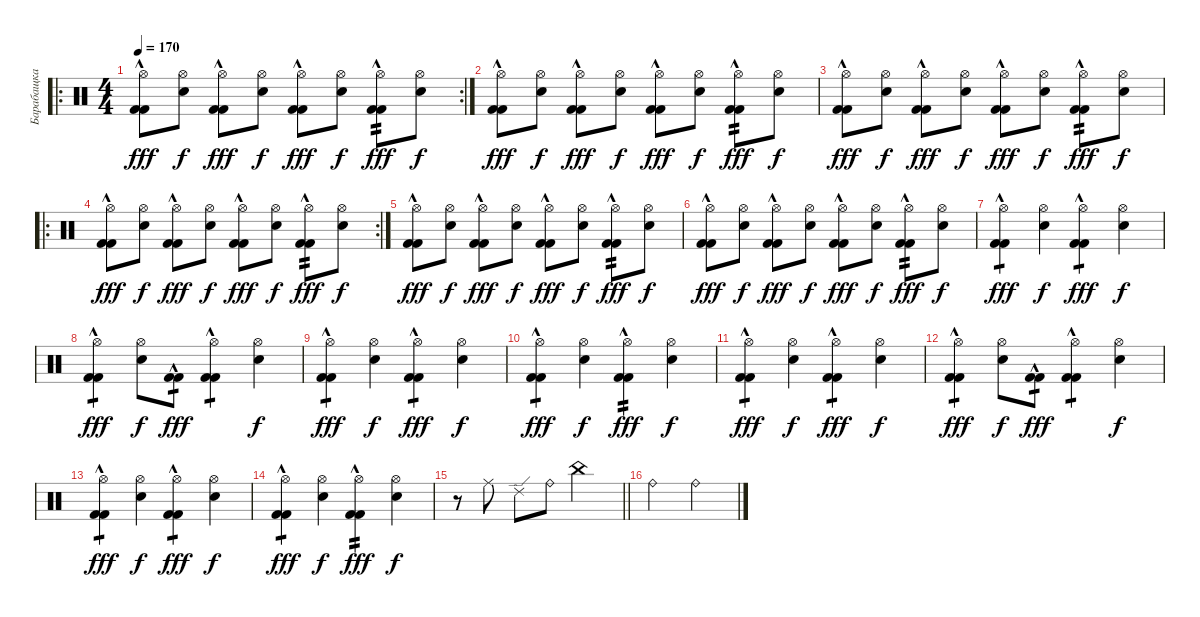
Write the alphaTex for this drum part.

\track ("Барабащка" "Барабащка") {instrument percussion}
\staff {score}
\articulation defaults
\ro
\rc 2
\ts (4 4)
\tempo 170
\clef neutral
\ks c
("Hi-Hat (open)" "Kick (hit) 2"{hac} "Kick (hit) 2").8{dy fff} ("Hi-Hat (open)" "Snare (hit) 2").8{dy f} ("Hi-Hat (open)" "Kick (hit) 2"{hac} "Kick (hit) 2").8{dy fff} ("Hi-Hat (open)" "Snare (hit) 2").8{dy f} ("Hi-Hat (open)" "Kick (hit) 2"{hac} "Kick (hit) 2").8{dy fff} ("Hi-Hat (open)" "Snare (hit) 2").8{dy f} ("Hi-Hat (open)" "Kick (hit) 2"{hac} "Kick (hit) 2").8{tp 2 dy fff} ("Hi-Hat (open)" "Snare (hit) 2").8{dy f} |
("Hi-Hat (open)" "Kick (hit) 2"{hac} "Kick (hit) 2").8{dy fff} ("Hi-Hat (open)" "Snare (hit) 2").8{dy f} ("Hi-Hat (open)" "Kick (hit) 2"{hac} "Kick (hit) 2").8{dy fff} ("Hi-Hat (open)" "Snare (hit) 2").8{dy f} ("Hi-Hat (open)" "Kick (hit) 2"{hac} "Kick (hit) 2").8{dy fff} ("Hi-Hat (open)" "Snare (hit) 2").8{dy f} ("Hi-Hat (open)" "Kick (hit) 2"{hac} "Kick (hit) 2").8{tp 2 dy fff} ("Hi-Hat (open)" "Snare (hit) 2").8{dy f} |
("Hi-Hat (open)" "Kick (hit) 2"{hac} "Kick (hit) 2").8{dy fff} ("Hi-Hat (open)" "Snare (hit) 2").8{dy f} ("Hi-Hat (open)" "Kick (hit) 2"{hac} "Kick (hit) 2").8{dy fff} ("Hi-Hat (open)" "Snare (hit) 2").8{dy f} ("Hi-Hat (open)" "Kick (hit) 2"{hac} "Kick (hit) 2").8{dy fff} ("Hi-Hat (open)" "Snare (hit) 2").8{dy f} ("Hi-Hat (open)" "Kick (hit) 2"{hac} "Kick (hit) 2").8{tp 2 dy fff} ("Hi-Hat (open)" "Snare (hit) 2").8{dy f} |
\ro
\rc 2
("Hi-Hat (open)" "Kick (hit) 2"{hac} "Kick (hit) 2").8{dy fff} ("Hi-Hat (open)" "Snare (hit) 2").8{dy f} ("Hi-Hat (open)" "Kick (hit) 2"{hac} "Kick (hit) 2").8{dy fff} ("Hi-Hat (open)" "Snare (hit) 2").8{dy f} ("Hi-Hat (open)" "Kick (hit) 2"{hac} "Kick (hit) 2").8{dy fff} ("Hi-Hat (open)" "Snare (hit) 2").8{dy f} ("Hi-Hat (open)" "Kick (hit) 2"{hac} "Kick (hit) 2").8{tp 2 dy fff} ("Hi-Hat (open)" "Snare (hit) 2").8{dy f} |
("Hi-Hat (open)" "Kick (hit) 2"{hac} "Kick (hit) 2").8{dy fff} ("Hi-Hat (open)" "Snare (hit) 2").8{dy f} ("Hi-Hat (open)" "Kick (hit) 2"{hac} "Kick (hit) 2").8{dy fff} ("Hi-Hat (open)" "Snare (hit) 2").8{dy f} ("Hi-Hat (open)" "Kick (hit) 2"{hac} "Kick (hit) 2").8{dy fff} ("Hi-Hat (open)" "Snare (hit) 2").8{dy f} ("Hi-Hat (open)" "Kick (hit) 2"{hac} "Kick (hit) 2").8{tp 2 dy fff} ("Hi-Hat (open)" "Snare (hit) 2").8{dy f} |
("Hi-Hat (open)" "Kick (hit) 2"{hac} "Kick (hit) 2").8{dy fff} ("Hi-Hat (open)" "Snare (hit) 2").8{dy f} ("Hi-Hat (open)" "Kick (hit) 2"{hac} "Kick (hit) 2").8{dy fff} ("Hi-Hat (open)" "Snare (hit) 2").8{dy f} ("Hi-Hat (open)" "Kick (hit) 2"{hac} "Kick (hit) 2").8{dy fff} ("Hi-Hat (open)" "Snare (hit) 2").8{dy f} ("Hi-Hat (open)" "Kick (hit) 2"{hac} "Kick (hit) 2").8{tp 2 dy fff} ("Hi-Hat (open)" "Snare (hit) 2").8{dy f} |
("Hi-Hat (open)" "Kick (hit) 2"{hac} "Kick (hit) 2").4{tp 1 dy fff} ("Hi-Hat (open)" "Snare (hit) 2").4{dy f} ("Hi-Hat (open)" "Kick (hit) 2"{hac} "Kick (hit) 2").4{tp 1 dy fff} ("Hi-Hat (open)" "Snare (hit) 2").4{dy f} |
("Hi-Hat (open)" "Kick (hit) 2"{hac} "Kick (hit) 2").4{tp 1 dy fff} ("Hi-Hat (open)" "Snare (hit) 2").8{dy f} ("Kick (hit) 2"{hac} "Kick (hit) 2").8{tp 1 dy fff} ("Hi-Hat (open)" "Kick (hit) 2"{hac} "Kick (hit) 2").4{tp 1} ("Hi-Hat (open)" "Snare (hit) 2").4{dy f} |
("Hi-Hat (open)" "Kick (hit) 2"{hac} "Kick (hit) 2").4{tp 1 dy fff} ("Hi-Hat (open)" "Snare (hit) 2").4{dy f} ("Hi-Hat (open)" "Kick (hit) 2"{hac} "Kick (hit) 2").4{tp 1 dy fff} ("Hi-Hat (open)" "Snare (hit) 2").4{dy f} |
("Hi-Hat (open)" "Kick (hit) 2"{hac} "Kick (hit) 2").4{tp 1 dy fff} ("Hi-Hat (open)" "Snare (hit) 2").4{dy f} ("Hi-Hat (open)" "Kick (hit) 2"{hac} "Kick (hit) 2").4{tp 2 dy fff} ("Hi-Hat (open)" "Snare (hit) 2").4{dy f} |
("Hi-Hat (open)" "Kick (hit) 2"{hac} "Kick (hit) 2").4{tp 1 dy fff} ("Hi-Hat (open)" "Snare (hit) 2").4{dy f} ("Hi-Hat (open)" "Kick (hit) 2"{hac} "Kick (hit) 2").4{tp 1 dy fff} ("Hi-Hat (open)" "Snare (hit) 2").4{dy f} |
("Hi-Hat (open)" "Kick (hit) 2"{hac} "Kick (hit) 2").4{tp 1 dy fff} ("Hi-Hat (open)" "Snare (hit) 2").8{dy f} ("Kick (hit) 2"{hac} "Kick (hit) 2").8{tp 1 dy fff} ("Hi-Hat (open)" "Kick (hit) 2"{hac} "Kick (hit) 2").4{tp 1} ("Hi-Hat (open)" "Snare (hit) 2").4{dy f} |
("Hi-Hat (open)" "Kick (hit) 2"{hac} "Kick (hit) 2").4{tp 1 dy fff} ("Hi-Hat (open)" "Snare (hit) 2").4{dy f} ("Hi-Hat (open)" "Kick (hit) 2"{hac} "Kick (hit) 2").4{tp 1 dy fff} ("Hi-Hat (open)" "Snare (hit) 2").4{dy f} |
("Hi-Hat (open)" "Kick (hit) 2"{hac} "Kick (hit) 2").4{tp 1 dy fff} ("Hi-Hat (open)" "Snare (hit) 2").4{dy f} ("Hi-Hat (open)" "Kick (hit) 2"{hac} "Kick (hit) 2").4{tp 2 dy fff} ("Hi-Hat (open)" "Snare (hit) 2").4{dy f} |
\barLineRight lightlight
r.8 "Ride (middle)".8 "Ride (edge) 2".8 "Ride (bell)".8 "China (hit)".2 |
"Ride (bell)".2 "Ride (bell)".2
